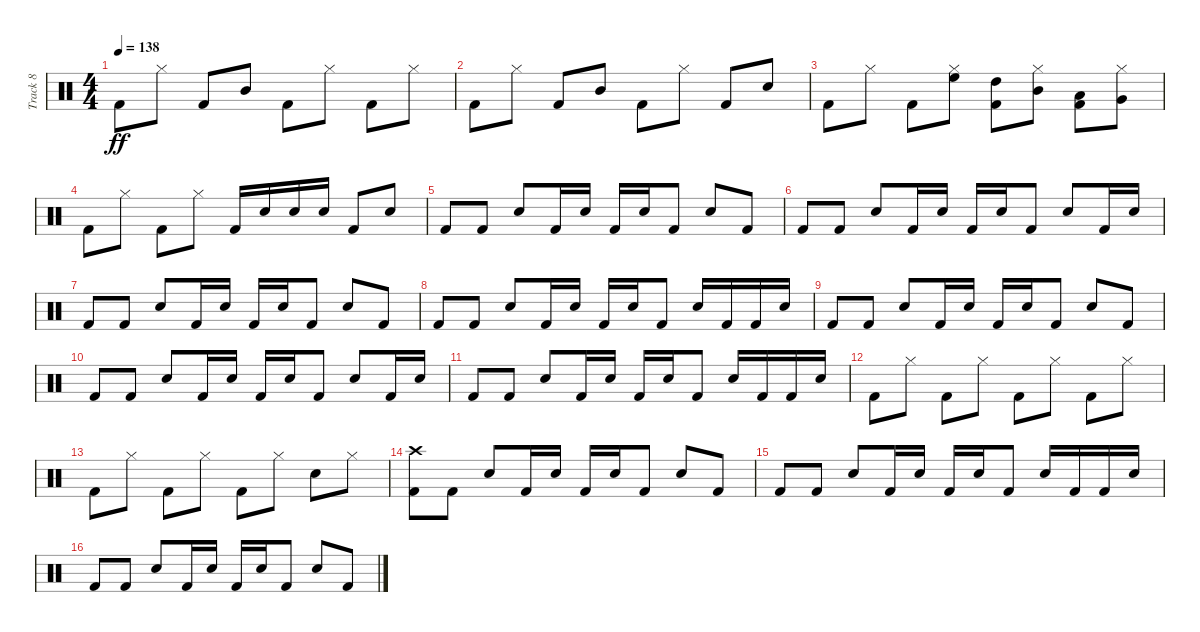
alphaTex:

\track ("Track 8" "Track 8") {instrument percussion}
\staff {score}
\articulation defaults
\ts (4 4)
\tempo 138
\clef neutral
\ks c "Kick (hit) 2".8{dy ff} "Hi-Hat (closed)".8 "Kick (hit) 2".8 "Mid Tom (hit)".8 "Kick (hit) 2".8 "Hi-Hat (closed)".8 "Kick (hit) 2".8 "Hi-Hat (closed)".8
|
"Kick (hit) 2".8 "Hi-Hat (closed)".8 "Kick (hit) 2".8 "Mid Tom (hit)".8 "Kick (hit) 2".8 "Hi-Hat (closed)".8 "Kick (hit) 2".8 "Snare (hit) 2".8 |
"Kick (hit) 2".8 "Hi-Hat (closed)".8 "Kick (hit) 2".8 ("Hi-Hat (closed)" "High Floor Tom (hit)").8 ("Kick (hit) 2" "High Tom (hit)").8 ("Hi-Hat (closed)" "Mid Tom (hit)").8 ("Kick (hit) 2" "Low Tom (hit)").8 ("Hi-Hat (closed)" "Very Low Tom (hit)").8 |
"Kick (hit) 2".8 "Hi-Hat (closed)".8 "Kick (hit) 2".8 "Hi-Hat (closed)".8 "Kick (hit) 2".16 "Snare (hit) 2".16 "Snare (hit) 2".16 "Snare (hit) 2".16 "Kick (hit) 2".8 "Snare (hit) 2".8 |
"Kick (hit) 2".8 "Kick (hit) 2".8 "Snare (hit) 2".8 "Kick (hit) 2".16 "Snare (hit) 2".16 "Kick (hit) 2".16 "Snare (hit) 2".16 "Kick (hit) 2".8 "Snare (hit) 2".8 "Kick (hit) 2".8 |
"Kick (hit) 2".8 "Kick (hit) 2".8 "Snare (hit) 2".8 "Kick (hit) 2".16 "Snare (hit) 2".16 "Kick (hit) 2".16 "Snare (hit) 2".16 "Kick (hit) 2".8 "Snare (hit) 2".8 "Kick (hit) 2".16 "Snare (hit) 2".16 |
"Kick (hit) 2".8 "Kick (hit) 2".8 "Snare (hit) 2".8 "Kick (hit) 2".16 "Snare (hit) 2".16 "Kick (hit) 2".16 "Snare (hit) 2".16 "Kick (hit) 2".8 "Snare (hit) 2".8 "Kick (hit) 2".8 |
"Kick (hit) 2".8 "Kick (hit) 2".8 "Snare (hit) 2".8 "Kick (hit) 2".16 "Snare (hit) 2".16 "Kick (hit) 2".16 "Snare (hit) 2".16 "Kick (hit) 2".8 "Snare (hit) 2".16 "Kick (hit) 2".16 "Kick (hit) 2".16 "Snare (hit) 2".16 |
"Kick (hit) 2".8 "Kick (hit) 2".8 "Snare (hit) 2".8 "Kick (hit) 2".16 "Snare (hit) 2".16 "Kick (hit) 2".16 "Snare (hit) 2".16 "Kick (hit) 2".8 "Snare (hit) 2".8 "Kick (hit) 2".8 |
"Kick (hit) 2".8 "Kick (hit) 2".8 "Snare (hit) 2".8 "Kick (hit) 2".16 "Snare (hit) 2".16 "Kick (hit) 2".16 "Snare (hit) 2".16 "Kick (hit) 2".8 "Snare (hit) 2".8 "Kick (hit) 2".16 "Snare (hit) 2".16 |
"Kick (hit) 2".8 "Kick (hit) 2".8 "Snare (hit) 2".8 "Kick (hit) 2".16 "Snare (hit) 2".16 "Kick (hit) 2".16 "Snare (hit) 2".16 "Kick (hit) 2".8 "Snare (hit) 2".16 "Kick (hit) 2".16 "Kick (hit) 2".16 "Snare (hit) 2".16 |
"Kick (hit) 2".8 "Hi-Hat (closed)".8 "Kick (hit) 2".8 "Hi-Hat (closed)".8 "Kick (hit) 2".8 "Hi-Hat (closed)".8 "Kick (hit) 2".8 "Hi-Hat (closed)".8 |
"Kick (hit) 2".8 "Hi-Hat (closed)".8 "Kick (hit) 2".8 "Hi-Hat (closed)".8 "Kick (hit) 2".8 "Hi-Hat (closed)".8 "Snare (hit) 2".8 "Hi-Hat (closed)".8 |
("Kick (hit) 2" "Crash high (hit)").8 "Kick (hit) 2".8 "Snare (hit) 2".8 "Kick (hit) 2".16 "Snare (hit) 2".16 "Kick (hit) 2".16 "Snare (hit) 2".16 "Kick (hit) 2".8 "Snare (hit) 2".8 "Kick (hit) 2".8 |
"Kick (hit) 2".8 "Kick (hit) 2".8 "Snare (hit) 2".8 "Kick (hit) 2".16 "Snare (hit) 2".16 "Kick (hit) 2".16 "Snare (hit) 2".16 "Kick (hit) 2".8 "Snare (hit) 2".16 "Kick (hit) 2".16 "Kick (hit) 2".16 "Snare (hit) 2".16 |
"Kick (hit) 2".8 "Kick (hit) 2".8 "Snare (hit) 2".8 "Kick (hit) 2".16 "Snare (hit) 2".16 "Kick (hit) 2".16 "Snare (hit) 2".16 "Kick (hit) 2".8 "Snare (hit) 2".8 "Kick (hit) 2".8
